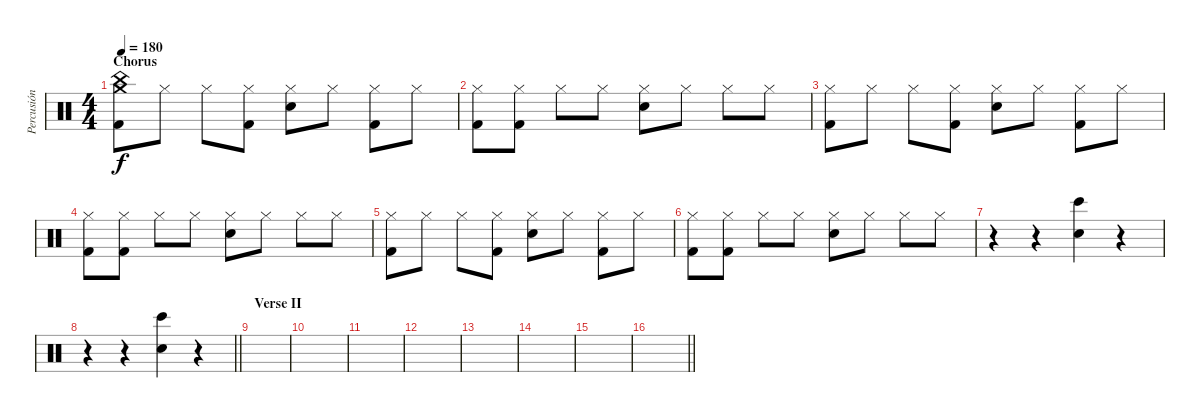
\track ("Percusión" "Percusión") {instrument percussion}
\staff {score}
\articulation defaults
\ts (4 4)
\section ("" "Chorus")
\tempo 180
\clef neutral
\ks c
("Crash medium (hit)" "China (hit)" "Kick (hit) 2").8{dy f} "Hi-Hat (closed)".8 "Hi-Hat (closed)".8 ("Hi-Hat (closed)" "Kick (hit) 2").8 ("Hi-Hat (closed)" "Snare (hit) 2").8 "Hi-Hat (closed)".8 ("Hi-Hat (closed)" "Kick (hit) 2").8 "Hi-Hat (closed)".8 |
("Hi-Hat (closed)" "Kick (hit) 2").8 ("Hi-Hat (closed)" "Kick (hit) 2").8 "Hi-Hat (closed)".8 "Hi-Hat (closed)".8 ("Hi-Hat (closed)" "Snare (hit) 2").8 "Hi-Hat (closed)".8 "Hi-Hat (closed)".8 "Hi-Hat (closed)".8 |
("Hi-Hat (closed)" "Kick (hit) 2").8 "Hi-Hat (closed)".8 "Hi-Hat (closed)".8 ("Hi-Hat (closed)" "Kick (hit) 2").8 ("Hi-Hat (closed)" "Snare (hit) 2").8 "Hi-Hat (closed)".8 ("Hi-Hat (closed)" "Kick (hit) 2").8 "Hi-Hat (closed)".8 |
("Hi-Hat (closed)" "Kick (hit) 2").8 ("Hi-Hat (closed)" "Kick (hit) 2").8 "Hi-Hat (closed)".8 "Hi-Hat (closed)".8 ("Hi-Hat (closed)" "Snare (hit) 2").8 "Hi-Hat (closed)".8 "Hi-Hat (closed)".8 "Hi-Hat (closed)".8 |
("Hi-Hat (closed)" "Kick (hit) 2").8 "Hi-Hat (closed)".8 "Hi-Hat (closed)".8 ("Hi-Hat (closed)" "Kick (hit) 2").8 ("Hi-Hat (closed)" "Snare (hit) 2").8 "Hi-Hat (closed)".8 ("Hi-Hat (closed)" "Kick (hit) 2").8 "Hi-Hat (closed)".8 |
("Hi-Hat (closed)" "Kick (hit) 2").8 ("Hi-Hat (closed)" "Kick (hit) 2").8 "Hi-Hat (closed)".8 "Hi-Hat (closed)".8 ("Hi-Hat (closed)" "Snare (hit) 2").8 "Hi-Hat (closed)".8 "Hi-Hat (closed)".8 "Hi-Hat (closed)".8 |
r.4 r.4 ("Bongo High (hit)" "Snare (hit) 2").4 r.4 |
\barLineRight lightlight
r.4 r.4 ("Bongo High (hit)" "Snare (hit) 2").4 r.4 |
\section ("" "Verse II")
|
|
|
|
|
|
|
\barLineRight lightlight
